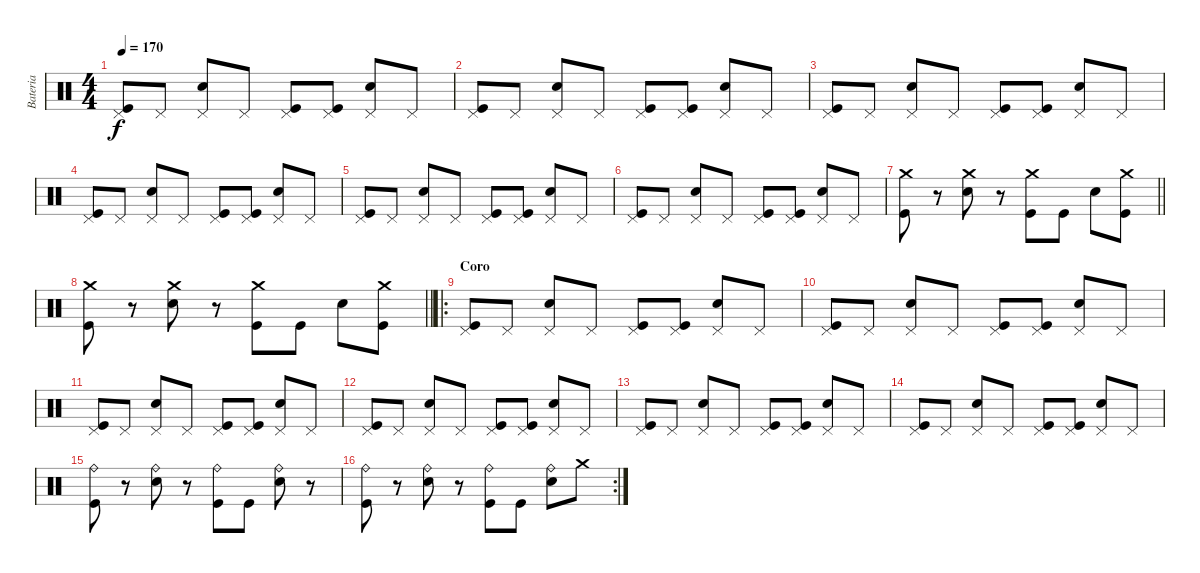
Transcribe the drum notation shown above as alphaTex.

\track ("Bateria" "Bateria") {instrument percussion}
\staff {score}
\articulation defaults
\ts (4 4)
\tempo 170
\clef neutral
\ks c
("Pedal Hi-Hat (hit)" "Kick (hit)").8{dy f} "Pedal Hi-Hat (hit)".8 ("Pedal Hi-Hat (hit)" "Electric Snare (hit)").8 "Pedal Hi-Hat (hit)".8 ("Pedal Hi-Hat (hit)" "Kick (hit)").8 ("Pedal Hi-Hat (hit)" "Kick (hit)").8 ("Pedal Hi-Hat (hit)" "Electric Snare (hit)").8 "Pedal Hi-Hat (hit)".8 |
("Pedal Hi-Hat (hit)" "Kick (hit)").8 "Pedal Hi-Hat (hit)".8 ("Pedal Hi-Hat (hit)" "Electric Snare (hit)").8 "Pedal Hi-Hat (hit)".8 ("Pedal Hi-Hat (hit)" "Kick (hit)").8 ("Pedal Hi-Hat (hit)" "Kick (hit)").8 ("Pedal Hi-Hat (hit)" "Electric Snare (hit)").8 "Pedal Hi-Hat (hit)".8 |
("Pedal Hi-Hat (hit)" "Kick (hit)").8 "Pedal Hi-Hat (hit)".8 ("Pedal Hi-Hat (hit)" "Electric Snare (hit)").8 "Pedal Hi-Hat (hit)".8 ("Pedal Hi-Hat (hit)" "Kick (hit)").8 ("Pedal Hi-Hat (hit)" "Kick (hit)").8 ("Pedal Hi-Hat (hit)" "Electric Snare (hit)").8 "Pedal Hi-Hat (hit)".8 |
("Pedal Hi-Hat (hit)" "Kick (hit)").8 "Pedal Hi-Hat (hit)".8 ("Pedal Hi-Hat (hit)" "Electric Snare (hit)").8 "Pedal Hi-Hat (hit)".8 ("Pedal Hi-Hat (hit)" "Kick (hit)").8 ("Pedal Hi-Hat (hit)" "Kick (hit)").8 ("Pedal Hi-Hat (hit)" "Electric Snare (hit)").8 "Pedal Hi-Hat (hit)".8 |
("Pedal Hi-Hat (hit)" "Kick (hit)").8 "Pedal Hi-Hat (hit)".8 ("Pedal Hi-Hat (hit)" "Electric Snare (hit)").8 "Pedal Hi-Hat (hit)".8 ("Pedal Hi-Hat (hit)" "Kick (hit)").8 ("Pedal Hi-Hat (hit)" "Kick (hit)").8 ("Pedal Hi-Hat (hit)" "Electric Snare (hit)").8 "Pedal Hi-Hat (hit)".8 |
("Pedal Hi-Hat (hit)" "Kick (hit)").8 "Pedal Hi-Hat (hit)".8 ("Pedal Hi-Hat (hit)" "Electric Snare (hit)").8 "Pedal Hi-Hat (hit)".8 ("Pedal Hi-Hat (hit)" "Kick (hit)").8 ("Pedal Hi-Hat (hit)" "Kick (hit)").8 ("Pedal Hi-Hat (hit)" "Electric Snare (hit)").8 "Pedal Hi-Hat (hit)".8 |
\barLineRight lightlight
("Crash medium (hit)" "Kick (hit)").8 r.8 ("Crash medium (hit)" "Electric Snare (hit)").8 r.8 ("Crash medium (hit)" "Kick (hit)").8 "Kick (hit)".8 "Electric Snare (hit)".8 ("Crash medium (hit)" "Kick (hit)").8 |
\section ("" "")
\barLineRight lightlight
("Crash medium (hit)" "Kick (hit)").8 r.8 ("Crash medium (hit)" "Electric Snare (hit)").8 r.8 ("Crash medium (hit)" "Kick (hit)").8 "Kick (hit)".8 "Electric Snare (hit)".8 ("Crash medium (hit)" "Kick (hit)").8 |
\ro
\section ("" "Coro")
("Pedal Hi-Hat (hit)" "Kick (hit)").8 "Pedal Hi-Hat (hit)".8 ("Pedal Hi-Hat (hit)" "Electric Snare (hit)").8 "Pedal Hi-Hat (hit)".8 ("Pedal Hi-Hat (hit)" "Kick (hit)").8 ("Pedal Hi-Hat (hit)" "Kick (hit)").8 ("Pedal Hi-Hat (hit)" "Electric Snare (hit)").8 "Pedal Hi-Hat (hit)".8 |
("Pedal Hi-Hat (hit)" "Kick (hit)").8 "Pedal Hi-Hat (hit)".8 ("Pedal Hi-Hat (hit)" "Electric Snare (hit)").8 "Pedal Hi-Hat (hit)".8 ("Pedal Hi-Hat (hit)" "Kick (hit)").8 ("Pedal Hi-Hat (hit)" "Kick (hit)").8 ("Pedal Hi-Hat (hit)" "Electric Snare (hit)").8 "Pedal Hi-Hat (hit)".8 |
("Pedal Hi-Hat (hit)" "Kick (hit)").8 "Pedal Hi-Hat (hit)".8 ("Pedal Hi-Hat (hit)" "Electric Snare (hit)").8 "Pedal Hi-Hat (hit)".8 ("Pedal Hi-Hat (hit)" "Kick (hit)").8 ("Pedal Hi-Hat (hit)" "Kick (hit)").8 ("Pedal Hi-Hat (hit)" "Electric Snare (hit)").8 "Pedal Hi-Hat (hit)".8 |
("Pedal Hi-Hat (hit)" "Kick (hit)").8 "Pedal Hi-Hat (hit)".8 ("Pedal Hi-Hat (hit)" "Electric Snare (hit)").8 "Pedal Hi-Hat (hit)".8 ("Pedal Hi-Hat (hit)" "Kick (hit)").8 ("Pedal Hi-Hat (hit)" "Kick (hit)").8 ("Pedal Hi-Hat (hit)" "Electric Snare (hit)").8 "Pedal Hi-Hat (hit)".8 |
("Pedal Hi-Hat (hit)" "Kick (hit)").8 "Pedal Hi-Hat (hit)".8 ("Pedal Hi-Hat (hit)" "Electric Snare (hit)").8 "Pedal Hi-Hat (hit)".8 ("Pedal Hi-Hat (hit)" "Kick (hit)").8 ("Pedal Hi-Hat (hit)" "Kick (hit)").8 ("Pedal Hi-Hat (hit)" "Electric Snare (hit)").8 "Pedal Hi-Hat (hit)".8 |
("Pedal Hi-Hat (hit)" "Kick (hit)").8 "Pedal Hi-Hat (hit)".8 ("Pedal Hi-Hat (hit)" "Electric Snare (hit)").8 "Pedal Hi-Hat (hit)".8 ("Pedal Hi-Hat (hit)" "Kick (hit)").8 ("Pedal Hi-Hat (hit)" "Kick (hit)").8 ("Pedal Hi-Hat (hit)" "Electric Snare (hit)").8 "Pedal Hi-Hat (hit)".8 |
("Ride (bell)" "Kick (hit)").8 r.8 ("Ride (bell)" "Electric Snare (hit)").8 r.8 ("Ride (bell)" "Kick (hit)").8 "Kick (hit)".8 ("Ride (bell)" "Electric Snare (hit)").8 r.8 |
\rc 2
("Ride (bell)" "Kick (hit)").8 r.8 ("Ride (bell)" "Electric Snare (hit)").8 r.8 ("Ride (bell)" "Kick (hit)").8 "Kick (hit)".8 ("Ride (bell)" "Electric Snare (hit)").8 "Crash medium (hit)".8
